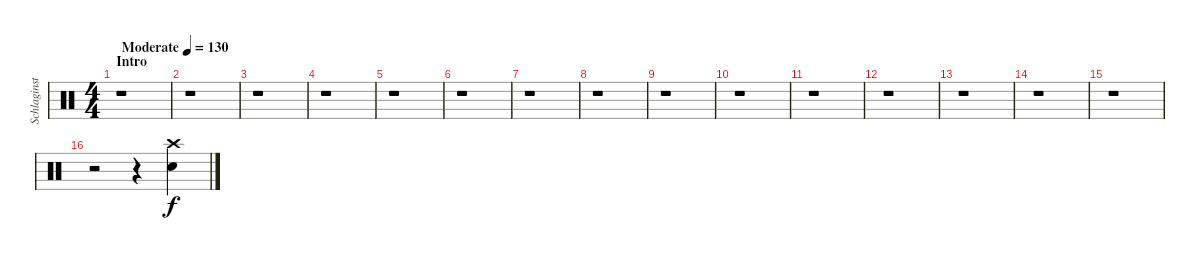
\track ("Schlaginstrumente - Auswahl" "Schlaginst") {instrument percussion}
\staff {score}
\articulation defaults
\ts (4 4)
\section ("" "Intro")
\tempo (130 "Moderate")
\clef neutral
\ks c
r.1{dy f} |
r.1 |
r.1 |
r.1 |
r.1 |
r.1 |
r.1 |
r.1 |
r.1 |
r.1 |
r.1 |
r.1 |
r.1 |
r.1 |
r.1 |
r.2 r.4 ("Snare (hit) 2" "Crash high (hit)").4
